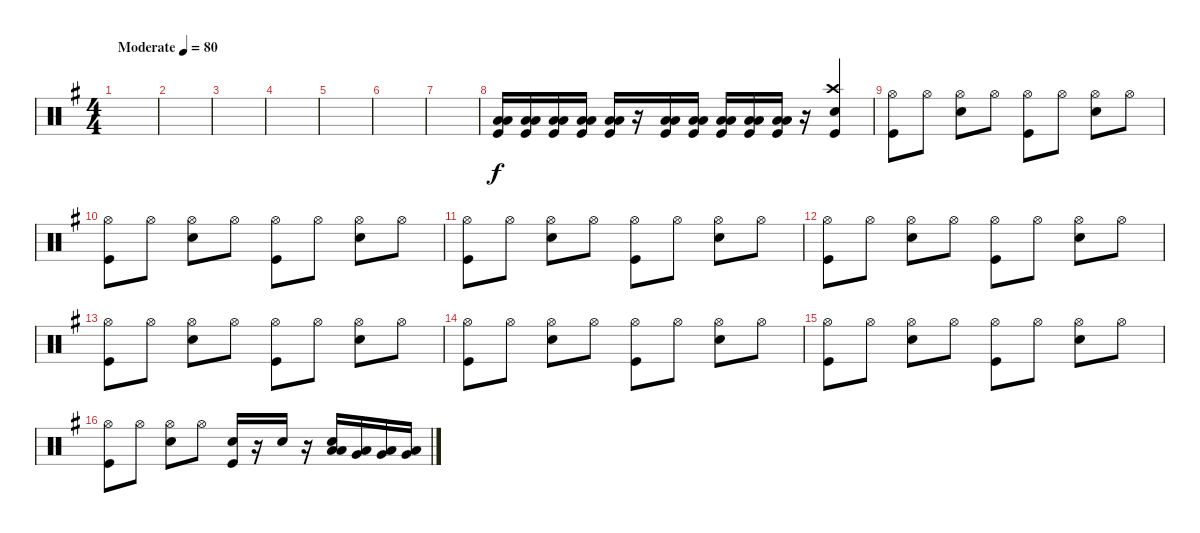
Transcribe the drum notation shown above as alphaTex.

\track "" {instrument percussion}
\staff {score}
\articulation defaults
\ts (4 4)
\tempo (80 "Moderate")
\clef neutral
\ks g
|
|
|
|
|
|
|
("Low Tom (hit)" "Low Floor Tom (hit)" "Kick (hit)").16 ("Low Floor Tom (hit)" "Low Tom (hit)" "Kick (hit)").16 ("Low Floor Tom (hit)" "Low Tom (hit)" "Kick (hit)").16 ("Low Tom (hit)" "Low Floor Tom (hit)" "Kick (hit)").16 ("Low Floor Tom (hit)" "Low Tom (hit)" "Kick (hit)").16 r.16 ("Low Tom (hit)" "Low Floor Tom (hit)" "Kick (hit)").16 ("Low Floor Tom (hit)" "Low Tom (hit)" "Kick (hit)").16 ("Low Tom (hit)" "Low Floor Tom (hit)" "Kick (hit)").16 ("Low Floor Tom (hit)" "Low Tom (hit)" "Kick (hit)").16 ("Low Floor Tom (hit)" "Low Tom (hit)" "Kick (hit)").16 r.16{txt ""} ("Crash high (hit)" "Electric Snare (hit)" "Kick (hit)").4 |
("Hi-Hat (open)" "Kick (hit)").8 "Hi-Hat (open)".8 ("Snare (hit) 2" "Hi-Hat (open)").8 "Hi-Hat (open)".8 ("Hi-Hat (open)" "Kick (hit)").8 "Hi-Hat (open)".8 ("Snare (hit) 2" "Hi-Hat (open)").8 "Hi-Hat (open)".8 |
("Hi-Hat (open)" "Kick (hit)").8 "Hi-Hat (open)".8 ("Snare (hit) 2" "Hi-Hat (open)").8 "Hi-Hat (open)".8 ("Hi-Hat (open)" "Kick (hit)").8 "Hi-Hat (open)".8 ("Snare (hit) 2" "Hi-Hat (open)").8 "Hi-Hat (open)".8 |
("Hi-Hat (open)" "Kick (hit)").8 "Hi-Hat (open)".8 ("Snare (hit) 2" "Hi-Hat (open)").8 "Hi-Hat (open)".8 ("Hi-Hat (open)" "Kick (hit)").8 "Hi-Hat (open)".8 ("Snare (hit) 2" "Hi-Hat (open)").8 "Hi-Hat (open)".8 |
("Hi-Hat (open)" "Kick (hit)").8 "Hi-Hat (open)".8 ("Snare (hit) 2" "Hi-Hat (open)").8 "Hi-Hat (open)".8 ("Hi-Hat (open)" "Kick (hit)").8 "Hi-Hat (open)".8 ("Snare (hit) 2" "Hi-Hat (open)").8 "Hi-Hat (open)".8 |
("Hi-Hat (open)" "Kick (hit)").8 "Hi-Hat (open)".8 ("Snare (hit) 2" "Hi-Hat (open)").8 "Hi-Hat (open)".8 ("Hi-Hat (open)" "Kick (hit)").8 "Hi-Hat (open)".8 ("Snare (hit) 2" "Hi-Hat (open)").8 "Hi-Hat (open)".8 |
("Hi-Hat (open)" "Kick (hit)").8 "Hi-Hat (open)".8 ("Snare (hit) 2" "Hi-Hat (open)").8 "Hi-Hat (open)".8 ("Hi-Hat (open)" "Kick (hit)").8 "Hi-Hat (open)".8 ("Snare (hit) 2" "Hi-Hat (open)").8 "Hi-Hat (open)".8 |
("Hi-Hat (open)" "Kick (hit)").8 "Hi-Hat (open)".8 ("Snare (hit) 2" "Hi-Hat (open)").8 "Hi-Hat (open)".8 ("Hi-Hat (open)" "Kick (hit)").8 "Hi-Hat (open)".8 ("Snare (hit) 2" "Hi-Hat (open)").8 "Hi-Hat (open)".8 |
("Hi-Hat (open)" "Kick (hit)").8 "Hi-Hat (open)".8 ("Hi-Hat (open)" "Snare (hit) 2").8 "Hi-Hat (open)".8 ("Snare (hit) 2" "Kick (hit)").16 r.16 "Snare (hit) 2".16 r.16 ("Snare (hit) 2" "Low Tom (hit)" "Low Floor Tom (hit)").16 ("Low Tom (hit)" "Very Low Tom (hit)").16 ("Very Low Tom (hit)" "Low Tom (hit)").16 ("Very Low Tom (hit)" "Low Floor Tom (hit)").16
